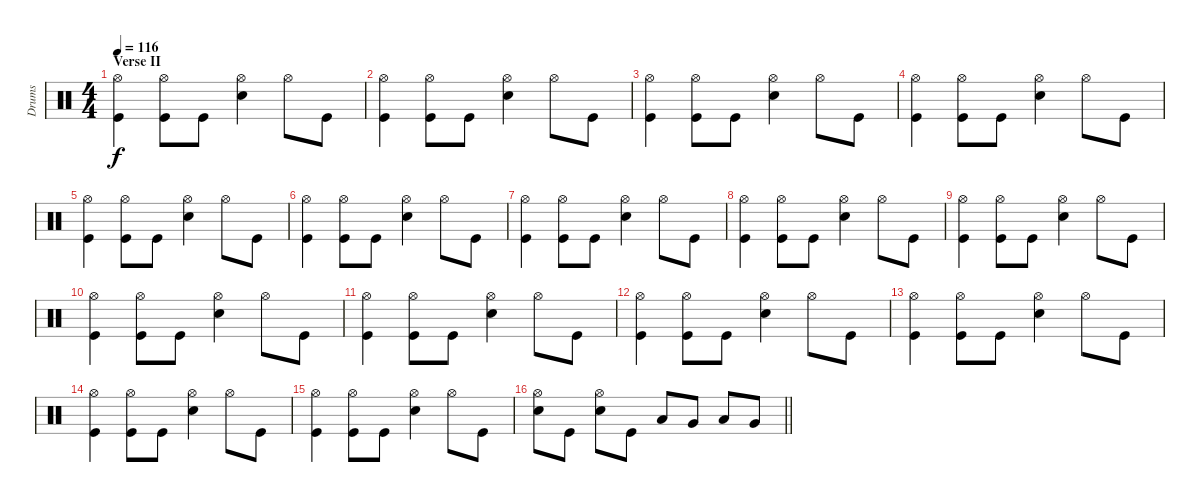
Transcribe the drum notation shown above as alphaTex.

\track ("Drums" "Drums") {instrument percussion}
\staff {score}
\articulation defaults
\ts (4 4)
\section ("" "Verse II")
\tempo 116
\clef neutral
\ks c
("Hi-Hat (open)" "Kick (hit)").4{dy f} ("Hi-Hat (open)" "Kick (hit)").8 "Kick (hit)".8 ("Hi-Hat (open)" "Electric Snare (hit)").4 "Hi-Hat (open)".8 "Kick (hit)".8 |
("Hi-Hat (open)" "Kick (hit)").4 ("Hi-Hat (open)" "Kick (hit)").8 "Kick (hit)".8 ("Hi-Hat (open)" "Electric Snare (hit)").4 "Hi-Hat (open)".8 "Kick (hit)".8 |
("Hi-Hat (open)" "Kick (hit)").4 ("Hi-Hat (open)" "Kick (hit)").8 "Kick (hit)".8 ("Hi-Hat (open)" "Electric Snare (hit)").4 "Hi-Hat (open)".8 "Kick (hit)".8 |
("Hi-Hat (open)" "Kick (hit)").4 ("Hi-Hat (open)" "Kick (hit)").8 "Kick (hit)".8 ("Hi-Hat (open)" "Electric Snare (hit)").4 "Hi-Hat (open)".8 "Kick (hit)".8 |
("Hi-Hat (open)" "Kick (hit)").4 ("Hi-Hat (open)" "Kick (hit)").8 "Kick (hit)".8 ("Hi-Hat (open)" "Electric Snare (hit)").4 "Hi-Hat (open)".8 "Kick (hit)".8 |
("Hi-Hat (open)" "Kick (hit)").4 ("Hi-Hat (open)" "Kick (hit)").8 "Kick (hit)".8 ("Hi-Hat (open)" "Electric Snare (hit)").4 "Hi-Hat (open)".8 "Kick (hit)".8 |
("Hi-Hat (open)" "Kick (hit)").4 ("Hi-Hat (open)" "Kick (hit)").8 "Kick (hit)".8 ("Hi-Hat (open)" "Electric Snare (hit)").4 "Hi-Hat (open)".8 "Kick (hit)".8 |
("Hi-Hat (open)" "Kick (hit)").4 ("Hi-Hat (open)" "Kick (hit)").8 "Kick (hit)".8 ("Hi-Hat (open)" "Electric Snare (hit)").4 "Hi-Hat (open)".8 "Kick (hit)".8 |
("Hi-Hat (open)" "Kick (hit)").4 ("Hi-Hat (open)" "Kick (hit)").8 "Kick (hit)".8 ("Hi-Hat (open)" "Electric Snare (hit)").4 "Hi-Hat (open)".8 "Kick (hit)".8 |
("Hi-Hat (open)" "Kick (hit)").4 ("Hi-Hat (open)" "Kick (hit)").8 "Kick (hit)".8 ("Hi-Hat (open)" "Electric Snare (hit)").4 "Hi-Hat (open)".8 "Kick (hit)".8 |
("Hi-Hat (open)" "Kick (hit)").4 ("Hi-Hat (open)" "Kick (hit)").8 "Kick (hit)".8 ("Hi-Hat (open)" "Electric Snare (hit)").4 "Hi-Hat (open)".8 "Kick (hit)".8 |
("Hi-Hat (open)" "Kick (hit)").4 ("Hi-Hat (open)" "Kick (hit)").8 "Kick (hit)".8 ("Hi-Hat (open)" "Electric Snare (hit)").4 "Hi-Hat (open)".8 "Kick (hit)".8 |
("Hi-Hat (open)" "Kick (hit)").4 ("Hi-Hat (open)" "Kick (hit)").8 "Kick (hit)".8 ("Hi-Hat (open)" "Electric Snare (hit)").4 "Hi-Hat (open)".8 "Kick (hit)".8 |
("Hi-Hat (open)" "Kick (hit)").4 ("Hi-Hat (open)" "Kick (hit)").8 "Kick (hit)".8 ("Hi-Hat (open)" "Electric Snare (hit)").4 "Hi-Hat (open)".8 "Kick (hit)".8 |
("Hi-Hat (open)" "Kick (hit)").4 ("Hi-Hat (open)" "Kick (hit)").8 "Kick (hit)".8 ("Hi-Hat (open)" "Electric Snare (hit)").4 "Hi-Hat (open)".8 "Kick (hit)".8 |
\barLineRight lightlight
("Hi-Hat (open)" "Electric Snare (hit)").8 "Kick (hit)".8 ("Hi-Hat (open)" "Electric Snare (hit)").8 "Kick (hit)".8 "Low Tom (hit)".8 "Very Low Tom (hit)".8 "Low Tom (hit)".8 "Very Low Tom (hit)".8
